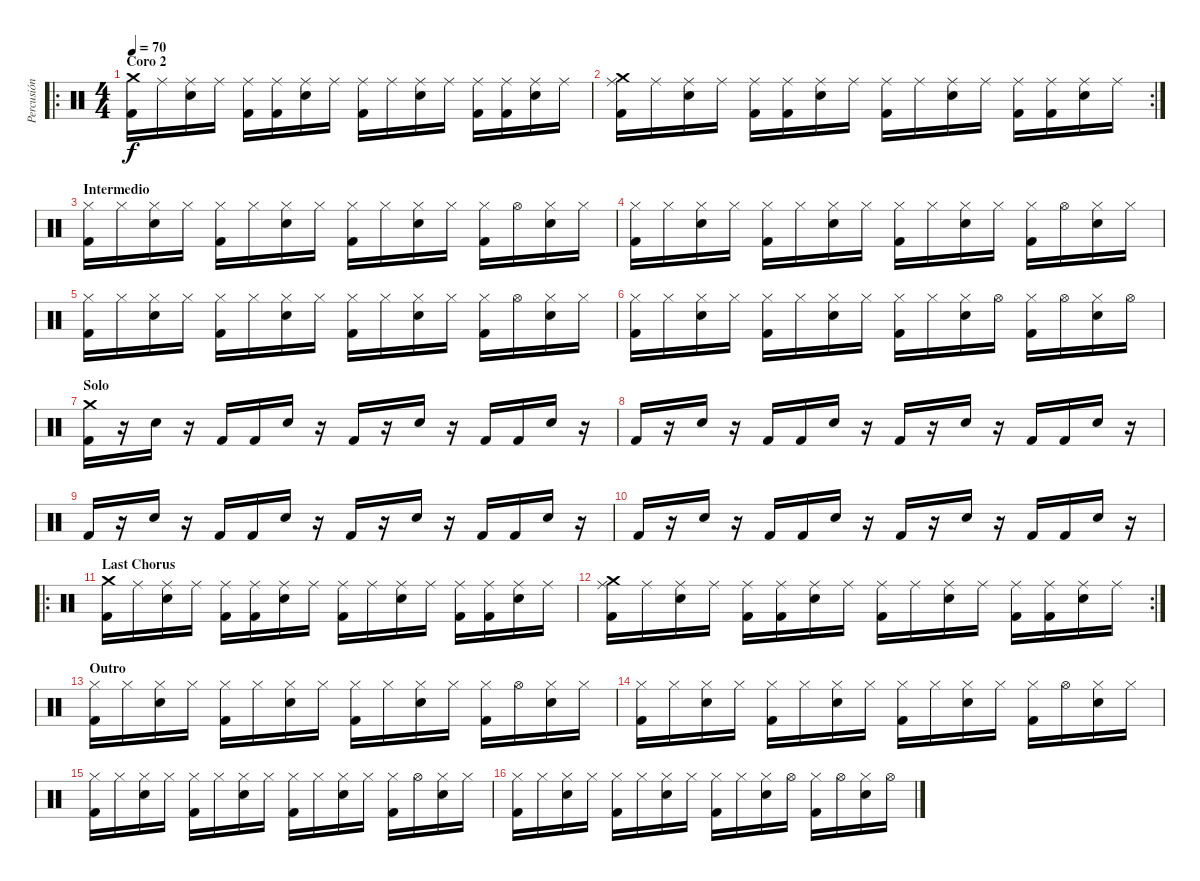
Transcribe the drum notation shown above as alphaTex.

\track ("Percusión" "Percusión") {instrument percussion}
\staff {score}
\articulation defaults
\ro
\ts (4 4)
\section ("" "Coro 2")
\tempo 70
\clef neutral
\ks c
("Kick (hit) 2" "Crash medium (hit)").16{dy f} "Ride (middle)".16 ("Snare (hit) 2" "Ride (middle)").16 "Ride (middle)".16 ("Kick (hit) 2" "Ride (middle)").16 ("Kick (hit) 2" "Ride (middle)").16 ("Snare (hit) 2" "Ride (middle)").16 "Ride (middle)".16 ("Kick (hit) 2" "Ride (middle)").16 "Ride (middle)".16 ("Snare (hit) 2" "Ride (middle)").16 "Ride (middle)".16 ("Kick (hit) 2" "Ride (middle)").16 ("Kick (hit) 2" "Ride (middle)").16 ("Snare (hit) 2" "Ride (middle)").16 "Ride (middle)".16 |
\rc 2
("Kick (hit) 2" "Crash medium (hit)" "Ride (middle)").16 "Ride (middle)".16 ("Snare (hit) 2" "Ride (middle)").16 "Ride (middle)".16 ("Kick (hit) 2" "Ride (middle)").16 ("Kick (hit) 2" "Ride (middle)").16 ("Snare (hit) 2" "Ride (middle)").16 "Ride (middle)".16 ("Kick (hit) 2" "Ride (middle)").16 "Ride (middle)".16 ("Snare (hit) 2" "Ride (middle)").16 "Ride (middle)".16 ("Kick (hit) 2" "Ride (middle)").16 ("Kick (hit) 2" "Ride (middle)").16 ("Snare (hit) 2" "Ride (middle)").16 "Ride (middle)".16 |
\section ("" "Intermedio")
("Kick (hit) 2" "Hi-Hat (closed)").16 "Hi-Hat (closed)".16 ("Snare (hit) 2" "Hi-Hat (closed)").16 "Hi-Hat (closed)".16 ("Kick (hit) 2" "Hi-Hat (closed)").16 "Hi-Hat (closed)".16 ("Snare (hit) 2" "Hi-Hat (closed)").16 "Hi-Hat (closed)".16 ("Kick (hit) 2" "Hi-Hat (closed)").16 "Hi-Hat (closed)".16 ("Snare (hit) 2" "Hi-Hat (closed)").16 "Hi-Hat (closed)".16 ("Kick (hit) 2" "Hi-Hat (closed)").16 "Hi-Hat (open)".16 ("Snare (hit) 2" "Hi-Hat (closed)").16 "Hi-Hat (closed)".16 |
("Kick (hit) 2" "Hi-Hat (closed)").16 "Hi-Hat (closed)".16 ("Snare (hit) 2" "Hi-Hat (closed)").16 "Hi-Hat (closed)".16 ("Kick (hit) 2" "Hi-Hat (closed)").16 "Hi-Hat (closed)".16 ("Snare (hit) 2" "Hi-Hat (closed)").16 "Hi-Hat (closed)".16 ("Kick (hit) 2" "Hi-Hat (closed)").16 "Hi-Hat (closed)".16 ("Snare (hit) 2" "Hi-Hat (closed)").16 "Hi-Hat (closed)".16 ("Kick (hit) 2" "Hi-Hat (closed)").16 "Hi-Hat (open)".16 ("Snare (hit) 2" "Hi-Hat (closed)").16 "Hi-Hat (closed)".16 |
("Kick (hit) 2" "Hi-Hat (closed)").16 "Hi-Hat (closed)".16 ("Snare (hit) 2" "Hi-Hat (closed)").16 "Hi-Hat (closed)".16 ("Kick (hit) 2" "Hi-Hat (closed)").16 "Hi-Hat (closed)".16 ("Snare (hit) 2" "Hi-Hat (closed)").16 "Hi-Hat (closed)".16 ("Kick (hit) 2" "Hi-Hat (closed)").16 "Hi-Hat (closed)".16 ("Snare (hit) 2" "Hi-Hat (closed)").16 "Hi-Hat (closed)".16 ("Kick (hit) 2" "Hi-Hat (closed)").16 "Hi-Hat (open)".16 ("Snare (hit) 2" "Hi-Hat (closed)").16 "Hi-Hat (closed)".16 |
("Kick (hit) 2" "Hi-Hat (closed)").16 "Hi-Hat (closed)".16 ("Snare (hit) 2" "Hi-Hat (closed)").16 "Hi-Hat (closed)".16 ("Kick (hit) 2" "Hi-Hat (closed)").16 "Hi-Hat (closed)".16 ("Snare (hit) 2" "Hi-Hat (closed)").16 "Hi-Hat (closed)".16 ("Kick (hit) 2" "Hi-Hat (closed)").16 "Hi-Hat (closed)".16 ("Snare (hit) 2" "Hi-Hat (closed)").16 "Hi-Hat (open)".16 ("Kick (hit) 2" "Hi-Hat (closed)").16 "Hi-Hat (open)".16 ("Snare (hit) 2" "Hi-Hat (closed)").16 "Hi-Hat (open)".16 |
\section ("" "Solo")
("Kick (hit) 2" "Crash medium (hit)").16 r.16 "Snare (hit) 2".16 r.16 "Kick (hit) 2".16 "Kick (hit) 2".16 "Snare (hit) 2".16 r.16 "Kick (hit) 2".16 r.16 "Snare (hit) 2".16 r.16 "Kick (hit) 2".16 "Kick (hit) 2".16 "Snare (hit) 2".16 r.16 |
"Kick (hit) 2".16 r.16 "Snare (hit) 2".16 r.16 "Kick (hit) 2".16 "Kick (hit) 2".16 "Snare (hit) 2".16 r.16 "Kick (hit) 2".16 r.16 "Snare (hit) 2".16 r.16 "Kick (hit) 2".16 "Kick (hit) 2".16 "Snare (hit) 2".16 r.16 |
"Kick (hit) 2".16 r.16 "Snare (hit) 2".16 r.16 "Kick (hit) 2".16 "Kick (hit) 2".16 "Snare (hit) 2".16 r.16 "Kick (hit) 2".16 r.16 "Snare (hit) 2".16 r.16 "Kick (hit) 2".16 "Kick (hit) 2".16 "Snare (hit) 2".16 r.16 |
"Kick (hit) 2".16 r.16 "Snare (hit) 2".16 r.16 "Kick (hit) 2".16 "Kick (hit) 2".16 "Snare (hit) 2".16 r.16 "Kick (hit) 2".16 r.16 "Snare (hit) 2".16 r.16 "Kick (hit) 2".16 "Kick (hit) 2".16 "Snare (hit) 2".16 r.16 |
\ro
\section ("" "Last Chorus")
("Kick (hit) 2" "Crash medium (hit)").16 "Ride (middle)".16 ("Snare (hit) 2" "Ride (middle)").16 "Ride (middle)".16 ("Kick (hit) 2" "Ride (middle)").16 ("Kick (hit) 2" "Ride (middle)").16 ("Snare (hit) 2" "Ride (middle)").16 "Ride (middle)".16 ("Kick (hit) 2" "Ride (middle)").16 "Ride (middle)".16 ("Snare (hit) 2" "Ride (middle)").16 "Ride (middle)".16 ("Kick (hit) 2" "Ride (middle)").16 ("Kick (hit) 2" "Ride (middle)").16 ("Snare (hit) 2" "Ride (middle)").16 "Ride (middle)".16 |
\rc 2
("Kick (hit) 2" "Crash medium (hit)" "Ride (middle)").16 "Ride (middle)".16 ("Snare (hit) 2" "Ride (middle)").16 "Ride (middle)".16 ("Kick (hit) 2" "Ride (middle)").16 ("Kick (hit) 2" "Ride (middle)").16 ("Snare (hit) 2" "Ride (middle)").16 "Ride (middle)".16 ("Kick (hit) 2" "Ride (middle)").16 "Ride (middle)".16 ("Snare (hit) 2" "Ride (middle)").16 "Ride (middle)".16 ("Kick (hit) 2" "Ride (middle)").16 ("Kick (hit) 2" "Ride (middle)").16 ("Snare (hit) 2" "Ride (middle)").16 "Ride (middle)".16 |
\section ("" "Outro")
("Kick (hit) 2" "Hi-Hat (closed)").16 "Hi-Hat (closed)".16 ("Snare (hit) 2" "Hi-Hat (closed)").16 "Hi-Hat (closed)".16 ("Kick (hit) 2" "Hi-Hat (closed)").16 "Hi-Hat (closed)".16 ("Snare (hit) 2" "Hi-Hat (closed)").16 "Hi-Hat (closed)".16 ("Kick (hit) 2" "Hi-Hat (closed)").16 "Hi-Hat (closed)".16 ("Snare (hit) 2" "Hi-Hat (closed)").16 "Hi-Hat (closed)".16 ("Kick (hit) 2" "Hi-Hat (closed)").16 "Hi-Hat (open)".16 ("Snare (hit) 2" "Hi-Hat (closed)").16 "Hi-Hat (closed)".16 |
("Kick (hit) 2" "Hi-Hat (closed)").16 "Hi-Hat (closed)".16 ("Snare (hit) 2" "Hi-Hat (closed)").16 "Hi-Hat (closed)".16 ("Kick (hit) 2" "Hi-Hat (closed)").16 "Hi-Hat (closed)".16 ("Snare (hit) 2" "Hi-Hat (closed)").16 "Hi-Hat (closed)".16 ("Kick (hit) 2" "Hi-Hat (closed)").16 "Hi-Hat (closed)".16 ("Snare (hit) 2" "Hi-Hat (closed)").16 "Hi-Hat (closed)".16 ("Kick (hit) 2" "Hi-Hat (closed)").16 "Hi-Hat (open)".16 ("Snare (hit) 2" "Hi-Hat (closed)").16 "Hi-Hat (closed)".16 |
("Kick (hit) 2" "Hi-Hat (closed)").16 "Hi-Hat (closed)".16 ("Snare (hit) 2" "Hi-Hat (closed)").16 "Hi-Hat (closed)".16 ("Kick (hit) 2" "Hi-Hat (closed)").16 "Hi-Hat (closed)".16 ("Snare (hit) 2" "Hi-Hat (closed)").16 "Hi-Hat (closed)".16 ("Kick (hit) 2" "Hi-Hat (closed)").16 "Hi-Hat (closed)".16 ("Snare (hit) 2" "Hi-Hat (closed)").16 "Hi-Hat (closed)".16 ("Kick (hit) 2" "Hi-Hat (closed)").16 "Hi-Hat (open)".16 ("Snare (hit) 2" "Hi-Hat (closed)").16 "Hi-Hat (closed)".16 |
("Kick (hit) 2" "Hi-Hat (closed)").16 "Hi-Hat (closed)".16 ("Snare (hit) 2" "Hi-Hat (closed)").16 "Hi-Hat (closed)".16 ("Kick (hit) 2" "Hi-Hat (closed)").16 "Hi-Hat (closed)".16 ("Snare (hit) 2" "Hi-Hat (closed)").16 "Hi-Hat (closed)".16 ("Kick (hit) 2" "Hi-Hat (closed)").16 "Hi-Hat (closed)".16 ("Snare (hit) 2" "Hi-Hat (closed)").16 "Hi-Hat (open)".16 ("Kick (hit) 2" "Hi-Hat (closed)").16 "Hi-Hat (open)".16 ("Snare (hit) 2" "Hi-Hat (closed)").16 "Hi-Hat (open)".16
